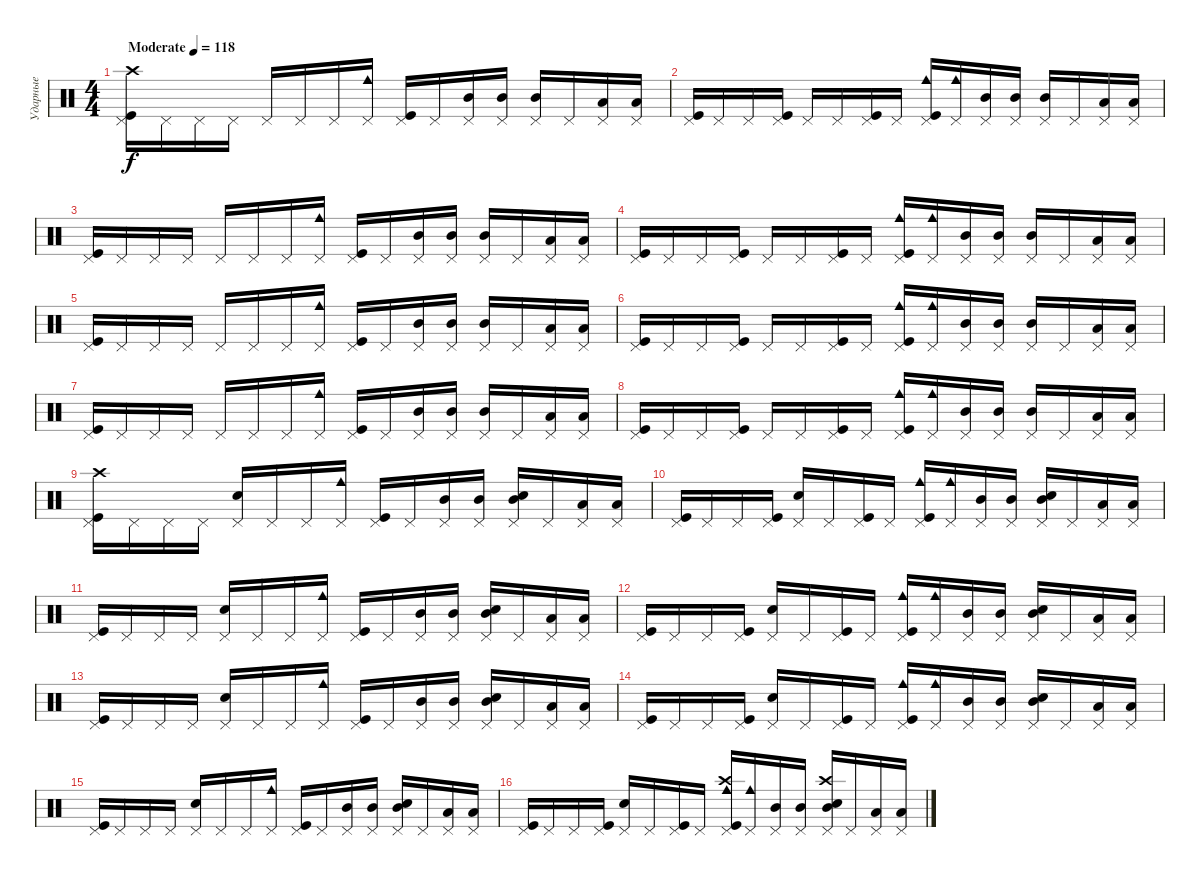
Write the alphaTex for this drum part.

\track ("Ударные" "Ударные") {instrument percussion}
\staff {score}
\articulation defaults
\ts (4 4)
\tempo (118 "Moderate")
\clef neutral
\ks c
("Pedal Hi-Hat (hit)" "Kick (hit)" "Crash high (hit)").16{dy f} "Pedal Hi-Hat (hit)".16 "Pedal Hi-Hat (hit)".16 "Pedal Hi-Hat (hit)".16 "Pedal Hi-Hat (hit)".16 "Pedal Hi-Hat (hit)".16 "Pedal Hi-Hat (hit)".16 ("Pedal Hi-Hat (hit)" "Cowbell medium (hit)").16 ("Pedal Hi-Hat (hit)" "Kick (hit)").16 "Pedal Hi-Hat (hit)".16 ("Pedal Hi-Hat (hit)" "Mid Tom (hit)").16 ("Pedal Hi-Hat (hit)" "Mid Tom (hit)").16 ("Pedal Hi-Hat (hit)" "Mid Tom (hit)").16 "Pedal Hi-Hat (hit)".16 ("Pedal Hi-Hat (hit)" "Low Tom (hit)").16 ("Pedal Hi-Hat (hit)" "Low Tom (hit)").16 |
("Pedal Hi-Hat (hit)" "Kick (hit)").16 "Pedal Hi-Hat (hit)".16 "Pedal Hi-Hat (hit)".16 ("Pedal Hi-Hat (hit)" "Kick (hit)").16 "Pedal Hi-Hat (hit)".16 "Pedal Hi-Hat (hit)".16 ("Pedal Hi-Hat (hit)" "Kick (hit)").16 "Pedal Hi-Hat (hit)".16 ("Pedal Hi-Hat (hit)" "Kick (hit)" "Cowbell medium (hit)").16 ("Pedal Hi-Hat (hit)" "Cowbell medium (hit)").16 ("Pedal Hi-Hat (hit)" "Mid Tom (hit)").16 ("Pedal Hi-Hat (hit)" "Mid Tom (hit)").16 ("Pedal Hi-Hat (hit)" "Mid Tom (hit)").16 "Pedal Hi-Hat (hit)".16 ("Pedal Hi-Hat (hit)" "Low Tom (hit)").16 ("Pedal Hi-Hat (hit)" "Low Tom (hit)").16 |
("Pedal Hi-Hat (hit)" "Kick (hit)").16 "Pedal Hi-Hat (hit)".16 "Pedal Hi-Hat (hit)".16 "Pedal Hi-Hat (hit)".16 "Pedal Hi-Hat (hit)".16 "Pedal Hi-Hat (hit)".16 "Pedal Hi-Hat (hit)".16 ("Pedal Hi-Hat (hit)" "Cowbell medium (hit)").16 ("Pedal Hi-Hat (hit)" "Kick (hit)").16 "Pedal Hi-Hat (hit)".16 ("Pedal Hi-Hat (hit)" "Mid Tom (hit)").16 ("Pedal Hi-Hat (hit)" "Mid Tom (hit)").16 ("Pedal Hi-Hat (hit)" "Mid Tom (hit)").16 "Pedal Hi-Hat (hit)".16 ("Pedal Hi-Hat (hit)" "Low Tom (hit)").16 ("Pedal Hi-Hat (hit)" "Low Tom (hit)").16 |
("Pedal Hi-Hat (hit)" "Kick (hit)").16 "Pedal Hi-Hat (hit)".16 "Pedal Hi-Hat (hit)".16 ("Pedal Hi-Hat (hit)" "Kick (hit)").16 "Pedal Hi-Hat (hit)".16 "Pedal Hi-Hat (hit)".16 ("Pedal Hi-Hat (hit)" "Kick (hit)").16 "Pedal Hi-Hat (hit)".16 ("Pedal Hi-Hat (hit)" "Kick (hit)" "Cowbell medium (hit)").16 ("Pedal Hi-Hat (hit)" "Cowbell medium (hit)").16 ("Pedal Hi-Hat (hit)" "Mid Tom (hit)").16 ("Pedal Hi-Hat (hit)" "Mid Tom (hit)").16 ("Pedal Hi-Hat (hit)" "Mid Tom (hit)").16 "Pedal Hi-Hat (hit)".16 ("Pedal Hi-Hat (hit)" "Low Tom (hit)").16 ("Pedal Hi-Hat (hit)" "Low Tom (hit)").16 |
("Pedal Hi-Hat (hit)" "Kick (hit)").16 "Pedal Hi-Hat (hit)".16 "Pedal Hi-Hat (hit)".16 "Pedal Hi-Hat (hit)".16 "Pedal Hi-Hat (hit)".16 "Pedal Hi-Hat (hit)".16 "Pedal Hi-Hat (hit)".16 ("Pedal Hi-Hat (hit)" "Cowbell medium (hit)").16 ("Pedal Hi-Hat (hit)" "Kick (hit)").16 "Pedal Hi-Hat (hit)".16 ("Pedal Hi-Hat (hit)" "Mid Tom (hit)").16 ("Pedal Hi-Hat (hit)" "Mid Tom (hit)").16 ("Pedal Hi-Hat (hit)" "Mid Tom (hit)").16 "Pedal Hi-Hat (hit)".16 ("Pedal Hi-Hat (hit)" "Low Tom (hit)").16 ("Pedal Hi-Hat (hit)" "Low Tom (hit)").16 |
("Pedal Hi-Hat (hit)" "Kick (hit)").16 "Pedal Hi-Hat (hit)".16 "Pedal Hi-Hat (hit)".16 ("Pedal Hi-Hat (hit)" "Kick (hit)").16 "Pedal Hi-Hat (hit)".16 "Pedal Hi-Hat (hit)".16 ("Pedal Hi-Hat (hit)" "Kick (hit)").16 "Pedal Hi-Hat (hit)".16 ("Pedal Hi-Hat (hit)" "Kick (hit)" "Cowbell medium (hit)").16 ("Pedal Hi-Hat (hit)" "Cowbell medium (hit)").16 ("Pedal Hi-Hat (hit)" "Mid Tom (hit)").16 ("Pedal Hi-Hat (hit)" "Mid Tom (hit)").16 ("Pedal Hi-Hat (hit)" "Mid Tom (hit)").16 "Pedal Hi-Hat (hit)".16 ("Pedal Hi-Hat (hit)" "Low Tom (hit)").16 ("Pedal Hi-Hat (hit)" "Low Tom (hit)").16 |
("Pedal Hi-Hat (hit)" "Kick (hit)").16 "Pedal Hi-Hat (hit)".16 "Pedal Hi-Hat (hit)".16 "Pedal Hi-Hat (hit)".16 "Pedal Hi-Hat (hit)".16 "Pedal Hi-Hat (hit)".16 "Pedal Hi-Hat (hit)".16 ("Pedal Hi-Hat (hit)" "Cowbell medium (hit)").16 ("Pedal Hi-Hat (hit)" "Kick (hit)").16 "Pedal Hi-Hat (hit)".16 ("Pedal Hi-Hat (hit)" "Mid Tom (hit)").16 ("Pedal Hi-Hat (hit)" "Mid Tom (hit)").16 ("Pedal Hi-Hat (hit)" "Mid Tom (hit)").16 "Pedal Hi-Hat (hit)".16 ("Pedal Hi-Hat (hit)" "Low Tom (hit)").16 ("Pedal Hi-Hat (hit)" "Low Tom (hit)").16 |
("Pedal Hi-Hat (hit)" "Kick (hit)").16 "Pedal Hi-Hat (hit)".16 "Pedal Hi-Hat (hit)".16 ("Pedal Hi-Hat (hit)" "Kick (hit)").16 "Pedal Hi-Hat (hit)".16 "Pedal Hi-Hat (hit)".16 ("Pedal Hi-Hat (hit)" "Kick (hit)").16 "Pedal Hi-Hat (hit)".16 ("Pedal Hi-Hat (hit)" "Kick (hit)" "Cowbell medium (hit)").16 ("Pedal Hi-Hat (hit)" "Cowbell medium (hit)").16 ("Pedal Hi-Hat (hit)" "Mid Tom (hit)").16 ("Pedal Hi-Hat (hit)" "Mid Tom (hit)").16 ("Pedal Hi-Hat (hit)" "Mid Tom (hit)").16 "Pedal Hi-Hat (hit)".16 ("Pedal Hi-Hat (hit)" "Low Tom (hit)").16 ("Pedal Hi-Hat (hit)" "Low Tom (hit)").16 |
("Pedal Hi-Hat (hit)" "Kick (hit)" "Crash high (hit)").16 "Pedal Hi-Hat (hit)".16 "Pedal Hi-Hat (hit)".16 "Pedal Hi-Hat (hit)".16 ("Pedal Hi-Hat (hit)" "Snare (hit) 2").16 "Pedal Hi-Hat (hit)".16 "Pedal Hi-Hat (hit)".16 ("Pedal Hi-Hat (hit)" "Cowbell medium (hit)").16 ("Pedal Hi-Hat (hit)" "Kick (hit)").16 "Pedal Hi-Hat (hit)".16 ("Pedal Hi-Hat (hit)" "Mid Tom (hit)").16 ("Pedal Hi-Hat (hit)" "Mid Tom (hit)").16 ("Pedal Hi-Hat (hit)" "Mid Tom (hit)" "Snare (hit) 2").16 "Pedal Hi-Hat (hit)".16 ("Pedal Hi-Hat (hit)" "Low Tom (hit)").16 ("Pedal Hi-Hat (hit)" "Low Tom (hit)").16 |
("Pedal Hi-Hat (hit)" "Kick (hit)").16 "Pedal Hi-Hat (hit)".16 "Pedal Hi-Hat (hit)".16 ("Pedal Hi-Hat (hit)" "Kick (hit)").16 ("Pedal Hi-Hat (hit)" "Snare (hit) 2").16 "Pedal Hi-Hat (hit)".16 ("Pedal Hi-Hat (hit)" "Kick (hit)").16 "Pedal Hi-Hat (hit)".16 ("Pedal Hi-Hat (hit)" "Kick (hit)" "Cowbell medium (hit)").16 ("Pedal Hi-Hat (hit)" "Cowbell medium (hit)").16 ("Pedal Hi-Hat (hit)" "Mid Tom (hit)").16 ("Pedal Hi-Hat (hit)" "Mid Tom (hit)").16 ("Pedal Hi-Hat (hit)" "Mid Tom (hit)" "Snare (hit) 2").16 "Pedal Hi-Hat (hit)".16 ("Pedal Hi-Hat (hit)" "Low Tom (hit)").16 ("Pedal Hi-Hat (hit)" "Low Tom (hit)").16 |
("Pedal Hi-Hat (hit)" "Kick (hit)").16 "Pedal Hi-Hat (hit)".16 "Pedal Hi-Hat (hit)".16 "Pedal Hi-Hat (hit)".16 ("Pedal Hi-Hat (hit)" "Snare (hit) 2").16 "Pedal Hi-Hat (hit)".16 "Pedal Hi-Hat (hit)".16 ("Pedal Hi-Hat (hit)" "Cowbell medium (hit)").16 ("Pedal Hi-Hat (hit)" "Kick (hit)").16 "Pedal Hi-Hat (hit)".16 ("Pedal Hi-Hat (hit)" "Mid Tom (hit)").16 ("Pedal Hi-Hat (hit)" "Mid Tom (hit)").16 ("Pedal Hi-Hat (hit)" "Mid Tom (hit)" "Snare (hit) 2").16 "Pedal Hi-Hat (hit)".16 ("Pedal Hi-Hat (hit)" "Low Tom (hit)").16 ("Pedal Hi-Hat (hit)" "Low Tom (hit)").16 |
("Pedal Hi-Hat (hit)" "Kick (hit)").16 "Pedal Hi-Hat (hit)".16 "Pedal Hi-Hat (hit)".16 ("Pedal Hi-Hat (hit)" "Kick (hit)").16 ("Pedal Hi-Hat (hit)" "Snare (hit) 2").16 "Pedal Hi-Hat (hit)".16 ("Pedal Hi-Hat (hit)" "Kick (hit)").16 "Pedal Hi-Hat (hit)".16 ("Pedal Hi-Hat (hit)" "Kick (hit)" "Cowbell medium (hit)").16 ("Pedal Hi-Hat (hit)" "Cowbell medium (hit)").16 ("Pedal Hi-Hat (hit)" "Mid Tom (hit)").16 ("Pedal Hi-Hat (hit)" "Mid Tom (hit)").16 ("Pedal Hi-Hat (hit)" "Mid Tom (hit)" "Snare (hit) 2").16 "Pedal Hi-Hat (hit)".16 ("Pedal Hi-Hat (hit)" "Low Tom (hit)").16 ("Pedal Hi-Hat (hit)" "Low Tom (hit)").16 |
("Pedal Hi-Hat (hit)" "Kick (hit)").16 "Pedal Hi-Hat (hit)".16 "Pedal Hi-Hat (hit)".16 "Pedal Hi-Hat (hit)".16 ("Pedal Hi-Hat (hit)" "Snare (hit) 2").16 "Pedal Hi-Hat (hit)".16 "Pedal Hi-Hat (hit)".16 ("Pedal Hi-Hat (hit)" "Cowbell medium (hit)").16 ("Pedal Hi-Hat (hit)" "Kick (hit)").16 "Pedal Hi-Hat (hit)".16 ("Pedal Hi-Hat (hit)" "Mid Tom (hit)").16 ("Pedal Hi-Hat (hit)" "Mid Tom (hit)").16 ("Pedal Hi-Hat (hit)" "Mid Tom (hit)" "Snare (hit) 2").16 "Pedal Hi-Hat (hit)".16 ("Pedal Hi-Hat (hit)" "Low Tom (hit)").16 ("Pedal Hi-Hat (hit)" "Low Tom (hit)").16 |
("Pedal Hi-Hat (hit)" "Kick (hit)").16 "Pedal Hi-Hat (hit)".16 "Pedal Hi-Hat (hit)".16 ("Pedal Hi-Hat (hit)" "Kick (hit)").16 ("Pedal Hi-Hat (hit)" "Snare (hit) 2").16 "Pedal Hi-Hat (hit)".16 ("Pedal Hi-Hat (hit)" "Kick (hit)").16 "Pedal Hi-Hat (hit)".16 ("Pedal Hi-Hat (hit)" "Kick (hit)" "Cowbell medium (hit)").16 ("Pedal Hi-Hat (hit)" "Cowbell medium (hit)").16 ("Pedal Hi-Hat (hit)" "Mid Tom (hit)").16 ("Pedal Hi-Hat (hit)" "Mid Tom (hit)").16 ("Pedal Hi-Hat (hit)" "Mid Tom (hit)" "Snare (hit) 2").16 "Pedal Hi-Hat (hit)".16 ("Pedal Hi-Hat (hit)" "Low Tom (hit)").16 ("Pedal Hi-Hat (hit)" "Low Tom (hit)").16 |
("Pedal Hi-Hat (hit)" "Kick (hit)").16 "Pedal Hi-Hat (hit)".16 "Pedal Hi-Hat (hit)".16 "Pedal Hi-Hat (hit)".16 ("Pedal Hi-Hat (hit)" "Snare (hit) 2").16 "Pedal Hi-Hat (hit)".16 "Pedal Hi-Hat (hit)".16 ("Pedal Hi-Hat (hit)" "Cowbell medium (hit)").16 ("Pedal Hi-Hat (hit)" "Kick (hit)").16 "Pedal Hi-Hat (hit)".16 ("Pedal Hi-Hat (hit)" "Mid Tom (hit)").16 ("Pedal Hi-Hat (hit)" "Mid Tom (hit)").16 ("Pedal Hi-Hat (hit)" "Mid Tom (hit)" "Snare (hit) 2").16 "Pedal Hi-Hat (hit)".16 ("Pedal Hi-Hat (hit)" "Low Tom (hit)").16 ("Pedal Hi-Hat (hit)" "Low Tom (hit)").16 |
("Pedal Hi-Hat (hit)" "Kick (hit)").16 "Pedal Hi-Hat (hit)".16 "Pedal Hi-Hat (hit)".16 ("Pedal Hi-Hat (hit)" "Kick (hit)").16 ("Pedal Hi-Hat (hit)" "Snare (hit) 2").16 "Pedal Hi-Hat (hit)".16 ("Pedal Hi-Hat (hit)" "Kick (hit)").16 "Pedal Hi-Hat (hit)".16 ("Pedal Hi-Hat (hit)" "Kick (hit)" "Cowbell medium (hit)" "Crash high (hit)").16 ("Pedal Hi-Hat (hit)" "Cowbell medium (hit)").16 ("Pedal Hi-Hat (hit)" "Mid Tom (hit)").16 ("Pedal Hi-Hat (hit)" "Mid Tom (hit)").16 ("Pedal Hi-Hat (hit)" "Mid Tom (hit)" "Snare (hit) 2" "Crash high (hit)").16 "Pedal Hi-Hat (hit)".16 ("Pedal Hi-Hat (hit)" "Low Tom (hit)").16 ("Pedal Hi-Hat (hit)" "Low Tom (hit)").16
